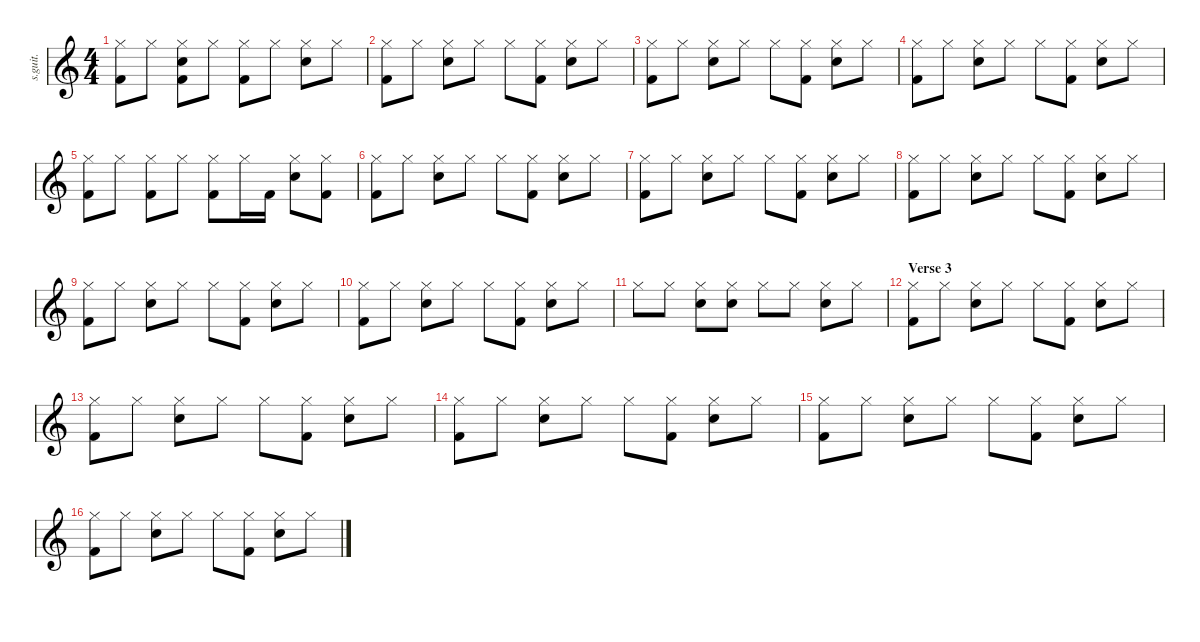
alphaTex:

\defaultSystemsLayout 4
\hideDynamics
\bracketExtendMode nobrackets
\track ("Drums (Russel Hobbs)" "s.guit.") {instrument percussion}
\staff {score}
\articulation defaults
\ts (4 4)
\tempo (139 hide)
\clef g2
\ks c
("Hi-Hat (closed)" "Kick (hit) 2").8{lyrics (0 "") lyrics (1 "") lyrics (2 "") lyrics (3 "") lyrics (4 "") dy f} "Hi-Hat (closed)".8{lyrics (0 "") lyrics (1 "") lyrics (2 "") lyrics (3 "") lyrics (4 "")} ("Hi-Hat (closed)" "Snare (hit) 2" "Kick (hit) 2").8{lyrics (0 "") lyrics (1 "") lyrics (2 "") lyrics (3 "") lyrics (4 "")} "Hi-Hat (closed)".8{lyrics (0 "") lyrics (1 "") lyrics (2 "") lyrics (3 "") lyrics (4 "")} ("Hi-Hat (closed)" "Kick (hit) 2").8{lyrics (0 "") lyrics (1 "") lyrics (2 "") lyrics (3 "") lyrics (4 "")} "Hi-Hat (closed)".8{lyrics (0 "") lyrics (1 "") lyrics (2 "") lyrics (3 "") lyrics (4 "")} ("Hi-Hat (closed)" "Snare (hit) 2").8{lyrics (0 "") lyrics (1 "") lyrics (2 "") lyrics (3 "") lyrics (4 "")} "Hi-Hat (closed)".8{lyrics (0 "") lyrics (1 "") lyrics (2 "") lyrics (3 "") lyrics (4 "")} |
("Hi-Hat (closed)" "Kick (hit) 2").8{lyrics (0 "") lyrics (1 "") lyrics (2 "") lyrics (3 "") lyrics (4 "")} "Hi-Hat (closed)".8{lyrics (0 "") lyrics (1 "") lyrics (2 "") lyrics (3 "") lyrics (4 "")} ("Hi-Hat (closed)" "Snare (hit) 2").8{lyrics (0 "") lyrics (1 "") lyrics (2 "") lyrics (3 "") lyrics (4 "")} "Hi-Hat (closed)".8{lyrics (0 "") lyrics (1 "") lyrics (2 "") lyrics (3 "") lyrics (4 "")} "Hi-Hat (closed)".8{lyrics (0 "") lyrics (1 "") lyrics (2 "") lyrics (3 "") lyrics (4 "")} ("Hi-Hat (closed)" "Kick (hit) 2").8{lyrics (0 "") lyrics (1 "") lyrics (2 "") lyrics (3 "") lyrics (4 "")} ("Hi-Hat (closed)" "Snare (hit) 2").8{lyrics (0 "") lyrics (1 "") lyrics (2 "") lyrics (3 "") lyrics (4 "")} "Hi-Hat (closed)".8{lyrics (0 "") lyrics (1 "") lyrics (2 "") lyrics (3 "") lyrics (4 "")} |
("Hi-Hat (closed)" "Kick (hit) 2").8{lyrics (0 "") lyrics (1 "") lyrics (2 "") lyrics (3 "") lyrics (4 "")} "Hi-Hat (closed)".8{lyrics (0 "") lyrics (1 "") lyrics (2 "") lyrics (3 "") lyrics (4 "")} ("Hi-Hat (closed)" "Snare (hit) 2").8{lyrics (0 "") lyrics (1 "") lyrics (2 "") lyrics (3 "") lyrics (4 "")} "Hi-Hat (closed)".8{lyrics (0 "") lyrics (1 "") lyrics (2 "") lyrics (3 "") lyrics (4 "")} "Hi-Hat (closed)".8{lyrics (0 "") lyrics (1 "") lyrics (2 "") lyrics (3 "") lyrics (4 "")} ("Hi-Hat (closed)" "Kick (hit) 2").8{lyrics (0 "") lyrics (1 "") lyrics (2 "") lyrics (3 "") lyrics (4 "")} ("Hi-Hat (closed)" "Snare (hit) 2").8{lyrics (0 "") lyrics (1 "") lyrics (2 "") lyrics (3 "") lyrics (4 "")} "Hi-Hat (closed)".8{lyrics (0 "") lyrics (1 "") lyrics (2 "") lyrics (3 "") lyrics (4 "")} |
("Hi-Hat (closed)" "Kick (hit) 2").8{lyrics (0 "") lyrics (1 "") lyrics (2 "") lyrics (3 "") lyrics (4 "")} "Hi-Hat (closed)".8{lyrics (0 "") lyrics (1 "") lyrics (2 "") lyrics (3 "") lyrics (4 "")} ("Hi-Hat (closed)" "Snare (hit) 2").8{lyrics (0 "") lyrics (1 "") lyrics (2 "") lyrics (3 "") lyrics (4 "")} "Hi-Hat (closed)".8{lyrics (0 "") lyrics (1 "") lyrics (2 "") lyrics (3 "") lyrics (4 "")} "Hi-Hat (closed)".8{lyrics (0 "") lyrics (1 "") lyrics (2 "") lyrics (3 "") lyrics (4 "")} ("Hi-Hat (closed)" "Kick (hit) 2").8{lyrics (0 "") lyrics (1 "") lyrics (2 "") lyrics (3 "") lyrics (4 "")} ("Hi-Hat (closed)" "Snare (hit) 2").8{lyrics (0 "") lyrics (1 "") lyrics (2 "") lyrics (3 "") lyrics (4 "")} "Hi-Hat (closed)".8{lyrics (0 "") lyrics (1 "") lyrics (2 "") lyrics (3 "") lyrics (4 "")} |
("Hi-Hat (closed)" "Kick (hit) 2").8{lyrics (0 "") lyrics (1 "") lyrics (2 "") lyrics (3 "") lyrics (4 "")} "Hi-Hat (closed)".8{lyrics (0 "") lyrics (1 "") lyrics (2 "") lyrics (3 "") lyrics (4 "")} ("Hi-Hat (closed)" "Kick (hit) 2").8{lyrics (0 "") lyrics (1 "") lyrics (2 "") lyrics (3 "") lyrics (4 "")} "Hi-Hat (closed)".8{lyrics (0 "") lyrics (1 "") lyrics (2 "") lyrics (3 "") lyrics (4 "")} ("Hi-Hat (closed)" "Kick (hit) 2").8{lyrics (0 "") lyrics (1 "") lyrics (2 "") lyrics (3 "") lyrics (4 "")} "Hi-Hat (closed)".16{lyrics (0 "") lyrics (1 "") lyrics (2 "") lyrics (3 "") lyrics (4 "")} "Kick (hit) 2".16{lyrics (0 "") lyrics (1 "") lyrics (2 "") lyrics (3 "") lyrics (4 "") dy fff} ("Hi-Hat (closed)" "Snare (hit) 2").8{lyrics (0 "") lyrics (1 "") lyrics (2 "") lyrics (3 "") lyrics (4 "") dy f} ("Hi-Hat (closed)" "Kick (hit) 2").8{lyrics (0 "") lyrics (1 "") lyrics (2 "") lyrics (3 "") lyrics (4 "")} |
("Hi-Hat (closed)" "Kick (hit) 2").8{lyrics (0 "") lyrics (1 "") lyrics (2 "") lyrics (3 "") lyrics (4 "")} "Hi-Hat (closed)".8{lyrics (0 "") lyrics (1 "") lyrics (2 "") lyrics (3 "") lyrics (4 "")} ("Hi-Hat (closed)" "Snare (hit) 2").8{lyrics (0 "") lyrics (1 "") lyrics (2 "") lyrics (3 "") lyrics (4 "")} "Hi-Hat (closed)".8{lyrics (0 "") lyrics (1 "") lyrics (2 "") lyrics (3 "") lyrics (4 "")} "Hi-Hat (closed)".8{lyrics (0 "") lyrics (1 "") lyrics (2 "") lyrics (3 "") lyrics (4 "")} ("Hi-Hat (closed)" "Kick (hit) 2").8{lyrics (0 "") lyrics (1 "") lyrics (2 "") lyrics (3 "") lyrics (4 "")} ("Hi-Hat (closed)" "Snare (hit) 2").8{lyrics (0 "") lyrics (1 "") lyrics (2 "") lyrics (3 "") lyrics (4 "")} "Hi-Hat (closed)".8{lyrics (0 "") lyrics (1 "") lyrics (2 "") lyrics (3 "") lyrics (4 "")} |
("Hi-Hat (closed)" "Kick (hit) 2").8{lyrics (0 "") lyrics (1 "") lyrics (2 "") lyrics (3 "") lyrics (4 "")} "Hi-Hat (closed)".8{lyrics (0 "") lyrics (1 "") lyrics (2 "") lyrics (3 "") lyrics (4 "")} ("Hi-Hat (closed)" "Snare (hit) 2").8{lyrics (0 "") lyrics (1 "") lyrics (2 "") lyrics (3 "") lyrics (4 "")} "Hi-Hat (closed)".8{lyrics (0 "") lyrics (1 "") lyrics (2 "") lyrics (3 "") lyrics (4 "")} "Hi-Hat (closed)".8{lyrics (0 "") lyrics (1 "") lyrics (2 "") lyrics (3 "") lyrics (4 "")} ("Hi-Hat (closed)" "Kick (hit) 2").8{lyrics (0 "") lyrics (1 "") lyrics (2 "") lyrics (3 "") lyrics (4 "")} ("Hi-Hat (closed)" "Snare (hit) 2").8{lyrics (0 "") lyrics (1 "") lyrics (2 "") lyrics (3 "") lyrics (4 "")} "Hi-Hat (closed)".8{lyrics (0 "") lyrics (1 "") lyrics (2 "") lyrics (3 "") lyrics (4 "")} |
("Hi-Hat (closed)" "Kick (hit) 2").8{lyrics (0 "") lyrics (1 "") lyrics (2 "") lyrics (3 "") lyrics (4 "")} "Hi-Hat (closed)".8{lyrics (0 "") lyrics (1 "") lyrics (2 "") lyrics (3 "") lyrics (4 "")} ("Hi-Hat (closed)" "Snare (hit) 2").8{lyrics (0 "") lyrics (1 "") lyrics (2 "") lyrics (3 "") lyrics (4 "")} "Hi-Hat (closed)".8{lyrics (0 "") lyrics (1 "") lyrics (2 "") lyrics (3 "") lyrics (4 "")} "Hi-Hat (closed)".8{lyrics (0 "") lyrics (1 "") lyrics (2 "") lyrics (3 "") lyrics (4 "")} ("Hi-Hat (closed)" "Kick (hit) 2").8{lyrics (0 "") lyrics (1 "") lyrics (2 "") lyrics (3 "") lyrics (4 "")} ("Hi-Hat (closed)" "Snare (hit) 2").8{lyrics (0 "") lyrics (1 "") lyrics (2 "") lyrics (3 "") lyrics (4 "")} "Hi-Hat (closed)".8{lyrics (0 "") lyrics (1 "") lyrics (2 "") lyrics (3 "") lyrics (4 "")} |
("Hi-Hat (closed)" "Kick (hit) 2").8{lyrics (0 "") lyrics (1 "") lyrics (2 "") lyrics (3 "") lyrics (4 "")} "Hi-Hat (closed)".8{lyrics (0 "") lyrics (1 "") lyrics (2 "") lyrics (3 "") lyrics (4 "")} ("Hi-Hat (closed)" "Snare (hit) 2").8{lyrics (0 "") lyrics (1 "") lyrics (2 "") lyrics (3 "") lyrics (4 "")} "Hi-Hat (closed)".8{lyrics (0 "") lyrics (1 "") lyrics (2 "") lyrics (3 "") lyrics (4 "")} "Hi-Hat (closed)".8{lyrics (0 "") lyrics (1 "") lyrics (2 "") lyrics (3 "") lyrics (4 "")} ("Hi-Hat (closed)" "Kick (hit) 2").8{lyrics (0 "") lyrics (1 "") lyrics (2 "") lyrics (3 "") lyrics (4 "")} ("Hi-Hat (closed)" "Snare (hit) 2").8{lyrics (0 "") lyrics (1 "") lyrics (2 "") lyrics (3 "") lyrics (4 "")} "Hi-Hat (closed)".8{lyrics (0 "") lyrics (1 "") lyrics (2 "") lyrics (3 "") lyrics (4 "")} |
("Hi-Hat (closed)" "Kick (hit) 2").8{lyrics (0 "") lyrics (1 "") lyrics (2 "") lyrics (3 "") lyrics (4 "")} "Hi-Hat (closed)".8{lyrics (0 "") lyrics (1 "") lyrics (2 "") lyrics (3 "") lyrics (4 "")} ("Hi-Hat (closed)" "Snare (hit) 2").8{lyrics (0 "") lyrics (1 "") lyrics (2 "") lyrics (3 "") lyrics (4 "")} "Hi-Hat (closed)".8{lyrics (0 "") lyrics (1 "") lyrics (2 "") lyrics (3 "") lyrics (4 "")} "Hi-Hat (closed)".8{lyrics (0 "") lyrics (1 "") lyrics (2 "") lyrics (3 "") lyrics (4 "")} ("Hi-Hat (closed)" "Kick (hit) 2").8{lyrics (0 "") lyrics (1 "") lyrics (2 "") lyrics (3 "") lyrics (4 "")} ("Hi-Hat (closed)" "Snare (hit) 2").8{lyrics (0 "") lyrics (1 "") lyrics (2 "") lyrics (3 "") lyrics (4 "")} "Hi-Hat (closed)".8{lyrics (0 "") lyrics (1 "") lyrics (2 "") lyrics (3 "") lyrics (4 "")} |
"Hi-Hat (closed)".8{lyrics (0 "") lyrics (1 "") lyrics (2 "") lyrics (3 "") lyrics (4 "")} "Hi-Hat (closed)".8{lyrics (0 "") lyrics (1 "") lyrics (2 "") lyrics (3 "") lyrics (4 "")} ("Hi-Hat (closed)" "Snare (hit) 2").8{lyrics (0 "") lyrics (1 "") lyrics (2 "") lyrics (3 "") lyrics (4 "")} ("Hi-Hat (closed)" "Snare (hit) 2").8{lyrics (0 "") lyrics (1 "") lyrics (2 "") lyrics (3 "") lyrics (4 "")} "Hi-Hat (closed)".8{lyrics (0 "") lyrics (1 "") lyrics (2 "") lyrics (3 "") lyrics (4 "")} "Hi-Hat (closed)".8{lyrics (0 "") lyrics (1 "") lyrics (2 "") lyrics (3 "") lyrics (4 "")} ("Hi-Hat (closed)" "Snare (hit) 2").8{lyrics (0 "") lyrics (1 "") lyrics (2 "") lyrics (3 "") lyrics (4 "")} "Hi-Hat (closed)".8{lyrics (0 "") lyrics (1 "") lyrics (2 "") lyrics (3 "") lyrics (4 "")} |
\section ("" "Verse 3")
("Hi-Hat (closed)" "Kick (hit) 2").8{lyrics (0 "") lyrics (1 "") lyrics (2 "") lyrics (3 "") lyrics (4 "")} "Hi-Hat (closed)".8{lyrics (0 "") lyrics (1 "") lyrics (2 "") lyrics (3 "") lyrics (4 "")} ("Hi-Hat (closed)" "Snare (hit) 2").8{lyrics (0 "") lyrics (1 "") lyrics (2 "") lyrics (3 "") lyrics (4 "")} "Hi-Hat (closed)".8{lyrics (0 "") lyrics (1 "") lyrics (2 "") lyrics (3 "") lyrics (4 "")} "Hi-Hat (closed)".8{lyrics (0 "") lyrics (1 "") lyrics (2 "") lyrics (3 "") lyrics (4 "")} ("Hi-Hat (closed)" "Kick (hit) 2").8{lyrics (0 "") lyrics (1 "") lyrics (2 "") lyrics (3 "") lyrics (4 "")} ("Hi-Hat (closed)" "Snare (hit) 2").8{lyrics (0 "") lyrics (1 "") lyrics (2 "") lyrics (3 "") lyrics (4 "")} "Hi-Hat (closed)".8{lyrics (0 "") lyrics (1 "") lyrics (2 "") lyrics (3 "") lyrics (4 "")} |
("Hi-Hat (closed)" "Kick (hit) 2").8{lyrics (0 "") lyrics (1 "") lyrics (2 "") lyrics (3 "") lyrics (4 "")} "Hi-Hat (closed)".8{lyrics (0 "") lyrics (1 "") lyrics (2 "") lyrics (3 "") lyrics (4 "")} ("Hi-Hat (closed)" "Snare (hit) 2").8{lyrics (0 "") lyrics (1 "") lyrics (2 "") lyrics (3 "") lyrics (4 "")} "Hi-Hat (closed)".8{lyrics (0 "") lyrics (1 "") lyrics (2 "") lyrics (3 "") lyrics (4 "")} "Hi-Hat (closed)".8{lyrics (0 "") lyrics (1 "") lyrics (2 "") lyrics (3 "") lyrics (4 "")} ("Hi-Hat (closed)" "Kick (hit) 2").8{lyrics (0 "") lyrics (1 "") lyrics (2 "") lyrics (3 "") lyrics (4 "")} ("Hi-Hat (closed)" "Snare (hit) 2").8{lyrics (0 "") lyrics (1 "") lyrics (2 "") lyrics (3 "") lyrics (4 "")} "Hi-Hat (closed)".8{lyrics (0 "") lyrics (1 "") lyrics (2 "") lyrics (3 "") lyrics (4 "")} |
("Hi-Hat (closed)" "Kick (hit) 2").8{lyrics (0 "") lyrics (1 "") lyrics (2 "") lyrics (3 "") lyrics (4 "")} "Hi-Hat (closed)".8{lyrics (0 "") lyrics (1 "") lyrics (2 "") lyrics (3 "") lyrics (4 "")} ("Hi-Hat (closed)" "Snare (hit) 2").8{lyrics (0 "") lyrics (1 "") lyrics (2 "") lyrics (3 "") lyrics (4 "")} "Hi-Hat (closed)".8{lyrics (0 "") lyrics (1 "") lyrics (2 "") lyrics (3 "") lyrics (4 "")} "Hi-Hat (closed)".8{lyrics (0 "") lyrics (1 "") lyrics (2 "") lyrics (3 "") lyrics (4 "")} ("Hi-Hat (closed)" "Kick (hit) 2").8{lyrics (0 "") lyrics (1 "") lyrics (2 "") lyrics (3 "") lyrics (4 "")} ("Hi-Hat (closed)" "Snare (hit) 2").8{lyrics (0 "") lyrics (1 "") lyrics (2 "") lyrics (3 "") lyrics (4 "")} "Hi-Hat (closed)".8{lyrics (0 "") lyrics (1 "") lyrics (2 "") lyrics (3 "") lyrics (4 "")} |
("Hi-Hat (closed)" "Kick (hit) 2").8{lyrics (0 "") lyrics (1 "") lyrics (2 "") lyrics (3 "") lyrics (4 "")} "Hi-Hat (closed)".8{lyrics (0 "") lyrics (1 "") lyrics (2 "") lyrics (3 "") lyrics (4 "")} ("Hi-Hat (closed)" "Snare (hit) 2").8{lyrics (0 "") lyrics (1 "") lyrics (2 "") lyrics (3 "") lyrics (4 "")} "Hi-Hat (closed)".8{lyrics (0 "") lyrics (1 "") lyrics (2 "") lyrics (3 "") lyrics (4 "")} "Hi-Hat (closed)".8{lyrics (0 "") lyrics (1 "") lyrics (2 "") lyrics (3 "") lyrics (4 "")} ("Hi-Hat (closed)" "Kick (hit) 2").8{lyrics (0 "") lyrics (1 "") lyrics (2 "") lyrics (3 "") lyrics (4 "")} ("Hi-Hat (closed)" "Snare (hit) 2").8{lyrics (0 "") lyrics (1 "") lyrics (2 "") lyrics (3 "") lyrics (4 "")} "Hi-Hat (closed)".8{lyrics (0 "") lyrics (1 "") lyrics (2 "") lyrics (3 "") lyrics (4 "")} |
("Hi-Hat (closed)" "Kick (hit) 2").8{lyrics (0 "") lyrics (1 "") lyrics (2 "") lyrics (3 "") lyrics (4 "")} "Hi-Hat (closed)".8{lyrics (0 "") lyrics (1 "") lyrics (2 "") lyrics (3 "") lyrics (4 "")} ("Hi-Hat (closed)" "Snare (hit) 2").8{lyrics (0 "") lyrics (1 "") lyrics (2 "") lyrics (3 "") lyrics (4 "")} "Hi-Hat (closed)".8{lyrics (0 "") lyrics (1 "") lyrics (2 "") lyrics (3 "") lyrics (4 "")} "Hi-Hat (closed)".8{lyrics (0 "") lyrics (1 "") lyrics (2 "") lyrics (3 "") lyrics (4 "")} ("Hi-Hat (closed)" "Kick (hit) 2").8{lyrics (0 "") lyrics (1 "") lyrics (2 "") lyrics (3 "") lyrics (4 "")} ("Hi-Hat (closed)" "Snare (hit) 2").8{lyrics (0 "") lyrics (1 "") lyrics (2 "") lyrics (3 "") lyrics (4 "")} "Hi-Hat (closed)".8{lyrics (0 "") lyrics (1 "") lyrics (2 "") lyrics (3 "") lyrics (4 "")}
